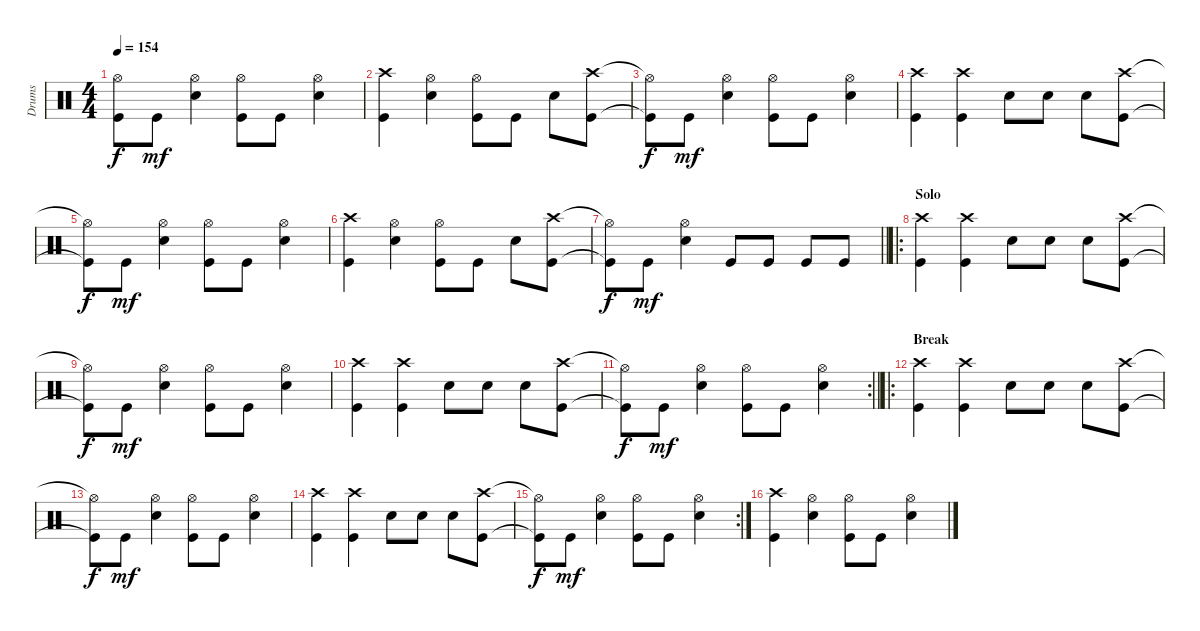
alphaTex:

\track ("Drums" "Drums") {instrument percussion}
\staff {score}
\articulation defaults
\ts (4 4)
\tempo 154
\clef neutral
\ks c
("Hi-Hat (open)"{t} "Kick (hit)"{t}).8{dy f} "Kick (hit)".8{dy mf} ("Hi-Hat (open)" "Electric Snare (hit)").4 ("Hi-Hat (open)" "Kick (hit)").8 "Kick (hit)".8 ("Hi-Hat (open)" "Electric Snare (hit)").4 |
("Crash high (hit)" "Kick (hit)").4 ("Hi-Hat (open)" "Electric Snare (hit)").4 ("Hi-Hat (open)" "Kick (hit)").8 "Kick (hit)".8 "Electric Snare (hit)".8 ("Crash high (hit)" "Kick (hit)").8 |
("Hi-Hat (open)"{t} "Kick (hit)"{t}).8{dy f} "Kick (hit)".8{dy mf} ("Hi-Hat (open)" "Electric Snare (hit)").4 ("Hi-Hat (open)" "Kick (hit)").8 "Kick (hit)".8 ("Hi-Hat (open)" "Electric Snare (hit)").4 |
("Crash high (hit)" "Kick (hit)").4 ("Crash high (hit)" "Kick (hit)").4 "Electric Snare (hit)".8 "Electric Snare (hit)".8 "Electric Snare (hit)".8 ("Crash high (hit)" "Kick (hit)").8 |
("Hi-Hat (open)"{t} "Kick (hit)"{t}).8{dy f} "Kick (hit)".8{dy mf} ("Hi-Hat (open)" "Electric Snare (hit)").4 ("Hi-Hat (open)" "Kick (hit)").8 "Kick (hit)".8 ("Hi-Hat (open)" "Electric Snare (hit)").4 |
("Crash high (hit)" "Kick (hit)").4 ("Hi-Hat (open)" "Electric Snare (hit)").4 ("Hi-Hat (open)" "Kick (hit)").8 "Kick (hit)".8 "Electric Snare (hit)".8 ("Crash high (hit)" "Kick (hit)").8 |
\barLineRight lightlight
("Hi-Hat (open)"{t} "Kick (hit)"{t}).8{dy f} "Kick (hit)".8{dy mf} ("Hi-Hat (open)" "Electric Snare (hit)").4 "Kick (hit)".8 "Kick (hit)".8 "Kick (hit)".8 "Kick (hit)".8 |
\ro
\section ("" "Solo")
("Crash high (hit)" "Kick (hit)").4 ("Crash high (hit)" "Kick (hit)").4 "Electric Snare (hit)".8 "Electric Snare (hit)".8 "Electric Snare (hit)".8 ("Crash high (hit)" "Kick (hit)").8 |
("Hi-Hat (open)"{t} "Kick (hit)"{t}).8{dy f} "Kick (hit)".8{dy mf} ("Hi-Hat (open)" "Electric Snare (hit)").4 ("Hi-Hat (open)" "Kick (hit)").8 "Kick (hit)".8 ("Hi-Hat (open)" "Electric Snare (hit)").4 |
("Crash high (hit)" "Kick (hit)").4 ("Crash high (hit)" "Kick (hit)").4 "Electric Snare (hit)".8 "Electric Snare (hit)".8 "Electric Snare (hit)".8 ("Crash high (hit)" "Kick (hit)").8 |
\rc 2
\barLineRight lightlight
("Hi-Hat (open)"{t} "Kick (hit)"{t}).8{dy f} "Kick (hit)".8{dy mf} ("Hi-Hat (open)" "Electric Snare (hit)").4 ("Hi-Hat (open)" "Kick (hit)").8 "Kick (hit)".8 ("Hi-Hat (open)" "Electric Snare (hit)").4 |
\ro
\section ("" "Break")
("Crash high (hit)" "Kick (hit)").4 ("Crash high (hit)" "Kick (hit)").4 "Electric Snare (hit)".8 "Electric Snare (hit)".8 "Electric Snare (hit)".8 ("Crash high (hit)" "Kick (hit)").8 |
("Hi-Hat (open)"{t} "Kick (hit)"{t}).8{dy f} "Kick (hit)".8{dy mf} ("Hi-Hat (open)" "Electric Snare (hit)").4 ("Hi-Hat (open)" "Kick (hit)").8 "Kick (hit)".8 ("Hi-Hat (open)" "Electric Snare (hit)").4 |
("Crash high (hit)" "Kick (hit)").4 ("Crash high (hit)" "Kick (hit)").4 "Electric Snare (hit)".8 "Electric Snare (hit)".8 "Electric Snare (hit)".8 ("Crash high (hit)" "Kick (hit)").8 |
\rc 2
("Hi-Hat (open)"{t} "Kick (hit)"{t}).8{dy f} "Kick (hit)".8{dy mf} ("Hi-Hat (open)" "Electric Snare (hit)").4 ("Hi-Hat (open)" "Kick (hit)").8 "Kick (hit)".8 ("Hi-Hat (open)" "Electric Snare (hit)").4 |
("Crash high (hit)" "Kick (hit)").4 ("Hi-Hat (open)" "Electric Snare (hit)").4 ("Hi-Hat (open)" "Kick (hit)").8 "Kick (hit)".8 ("Hi-Hat (open)" "Electric Snare (hit)").4
